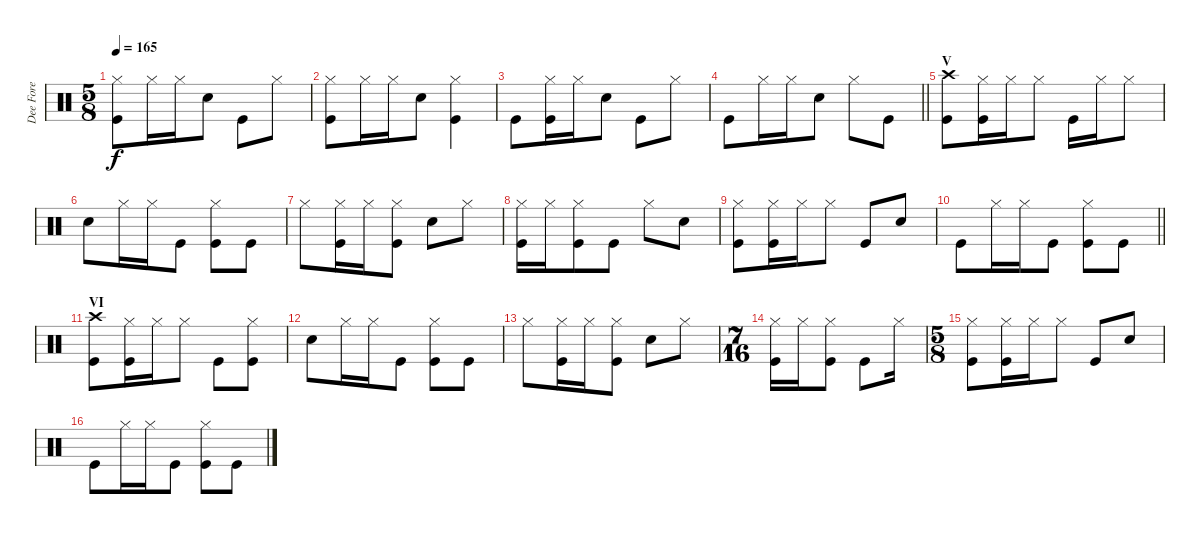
\track ("Dee Fore" "Dee Fore") {instrument percussion}
\staff {score}
\articulation defaults
\ts (5 8)
\tempo 165
\clef neutral
\ks c
("Hi-Hat (closed)" "Kick (hit)").8{dy f} "Hi-Hat (closed)".16 "Hi-Hat (closed)".16 "Electric Snare (hit)".8 "Kick (hit)".8 "Hi-Hat (closed)".8 |
("Hi-Hat (closed)" "Kick (hit)").8 "Hi-Hat (closed)".16 "Hi-Hat (closed)".16 "Electric Snare (hit)".8 ("Hi-Hat (closed)" "Kick (hit)").4 |
"Kick (hit)".8 ("Hi-Hat (closed)" "Kick (hit)").16 "Hi-Hat (closed)".16 "Electric Snare (hit)".8 "Kick (hit)".8 "Hi-Hat (closed)".8 |
\barLineRight lightlight "Kick (hit)".8 "Hi-Hat (closed)".16 "Hi-Hat (closed)".16 "Electric Snare (hit)".8 "Hi-Hat (closed)".8 "Kick (hit)".8
|
\section ("" "V")
("Crash high (hit)" "Kick (hit)").8 ("Hi-Hat (closed)" "Kick (hit)").16 "Hi-Hat (closed)".16 "Hi-Hat (closed)".8 "Kick (hit)".16 "Hi-Hat (closed)".16 "Hi-Hat (closed)".8 |
"Electric Snare (hit)".8 "Hi-Hat (closed)".16 "Hi-Hat (closed)".16 "Kick (hit)".8 ("Hi-Hat (closed)" "Kick (hit)").8 "Kick (hit)".8 |
"Hi-Hat (closed)".8 ("Hi-Hat (closed)" "Kick (hit)").16 "Hi-Hat (closed)".16 ("Hi-Hat (closed)" "Kick (hit)").8 "Electric Snare (hit)".8 "Hi-Hat (closed)".8 |
("Hi-Hat (closed)" "Kick (hit)").16 "Hi-Hat (closed)".16 ("Hi-Hat (closed)" "Kick (hit)").8 "Kick (hit)".8 "Hi-Hat (closed)".8 "Electric Snare (hit)".8 |
("Hi-Hat (closed)" "Kick (hit)").8 ("Hi-Hat (closed)" "Kick (hit)").16 "Hi-Hat (closed)".16 "Hi-Hat (closed)".8 "Kick (hit)".8 "Electric Snare (hit)".8 |
\barLineRight lightlight "Kick (hit)".8 "Hi-Hat (closed)".16 "Hi-Hat (closed)".16 "Kick (hit)".8
("Hi-Hat (closed)" "Kick (hit)").8 "Kick (hit)".8 |
\section ("" "VI")
("Crash high (hit)" "Kick (hit)").8 ("Hi-Hat (closed)" "Kick (hit)").16 "Hi-Hat (closed)".16 "Hi-Hat (closed)".8 "Kick (hit)".8 ("Hi-Hat (closed)" "Kick (hit)").8 |
"Electric Snare (hit)".8 "Hi-Hat (closed)".16 "Hi-Hat (closed)".16 "Kick (hit)".8 ("Hi-Hat (closed)" "Kick (hit)").8 "Kick (hit)".8 |
"Hi-Hat (closed)".8 ("Hi-Hat (closed)" "Kick (hit)").16 "Hi-Hat (closed)".16 ("Hi-Hat (closed)" "Kick (hit)").8 "Electric Snare (hit)".8 "Hi-Hat (closed)".8 |
\ts (7 16)
("Hi-Hat (closed)" "Kick (hit)").16 "Hi-Hat (closed)".16 ("Hi-Hat (closed)" "Kick (hit)").8 "Kick (hit)".8 "Hi-Hat (closed)".16 |
\ts (5 8)
("Hi-Hat (closed)" "Kick (hit)").8 ("Hi-Hat (closed)" "Kick (hit)").16 "Hi-Hat (closed)".16 "Hi-Hat (closed)".8 "Kick (hit)".8 "Electric Snare (hit)".8 |
"Kick (hit)".8 "Hi-Hat (closed)".16 "Hi-Hat (closed)".16 "Kick (hit)".8 ("Hi-Hat (closed)" "Kick (hit)").8 "Kick (hit)".8
